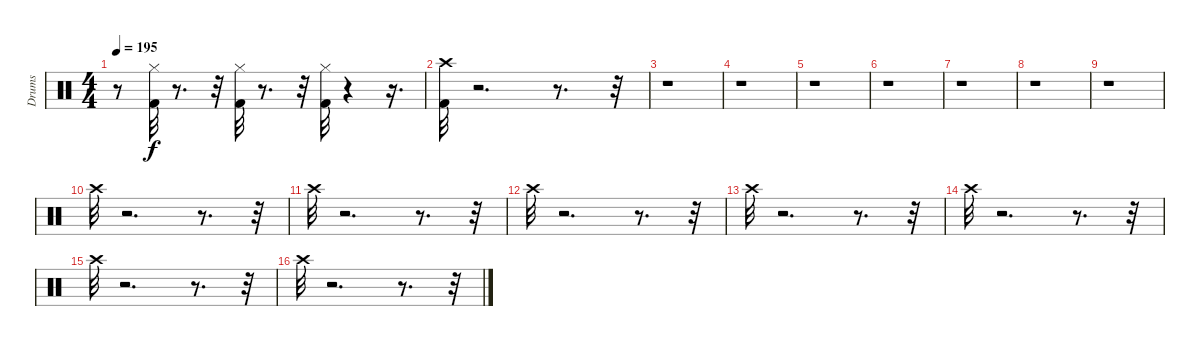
\track ("Drums" "Drums") {instrument percussion}
\staff {score}
\articulation defaults
\ts (4 4)
\tempo 195
\clef neutral
\ks c
r.8{dy f} ("Hi-Hat (closed)" "Kick (hit) 2").32 r.8{d} r.32 ("Hi-Hat (closed)" "Kick (hit) 2").32 r.8{d} r.32 ("Hi-Hat (closed)" "Kick (hit) 2").32 r.4 r.16{d} |
("Crash high (hit)" "Kick (hit) 2").32 r.2{d} r.8{d} r.32 |
r.1 |
r.1 |
r.1 |
r.1 |
r.1 |
r.1 |
r.1 |
"Crash high (hit)".32 r.2{d} r.8{d} r.32 |
"Crash high (hit)".32 r.2{d} r.8{d} r.32 |
"Crash high (hit)".32 r.2{d} r.8{d} r.32 |
"Crash high (hit)".32 r.2{d} r.8{d} r.32 |
"Crash high (hit)".32 r.2{d} r.8{d} r.32 |
"Crash high (hit)".32 r.2{d} r.8{d} r.32 |
"Crash high (hit)".32 r.2{d} r.8{d} r.32
